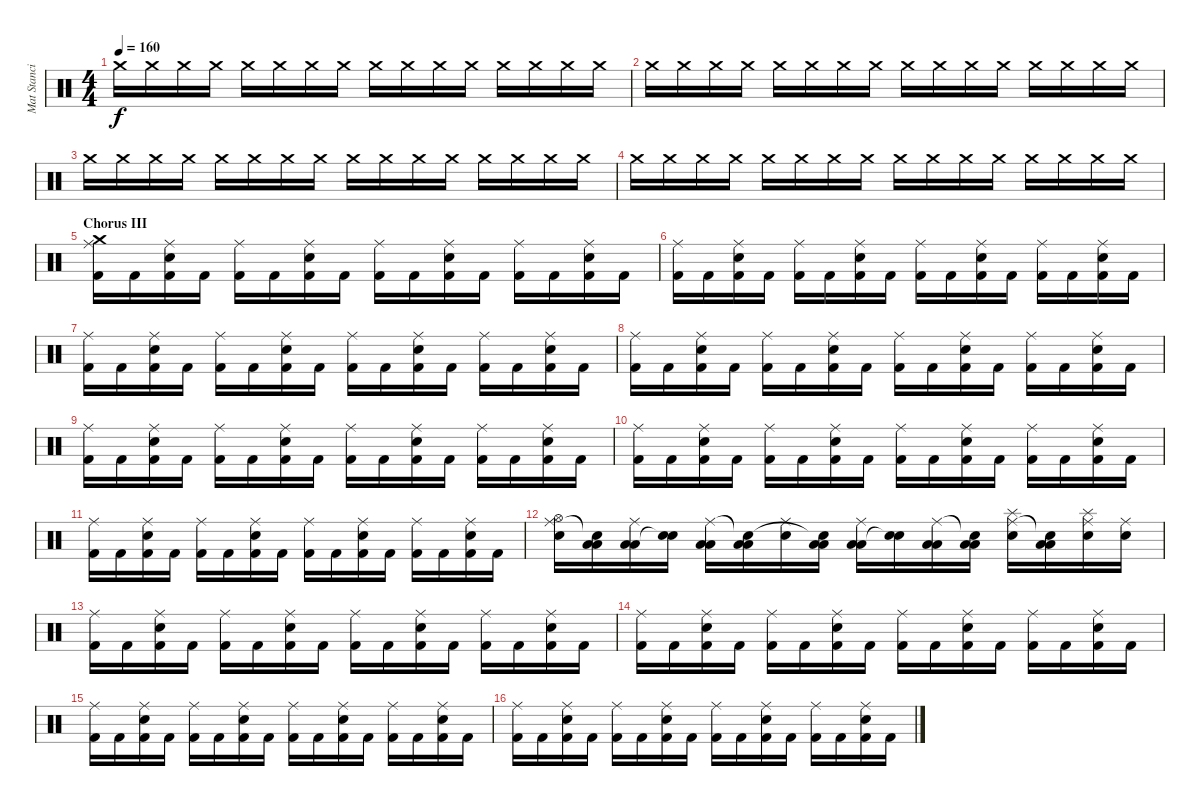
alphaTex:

\track ("Mat Stancioiu" "Mat Stanci") {instrument percussion}
\staff {score}
\articulation defaults
\ts (4 4)
\tempo 160
\clef neutral
\ks c "Crash medium (hit)".16{dy f} "Crash medium (hit)".16 "Crash medium (hit)".16 "Crash medium (hit)".16 "Crash medium (hit)".16 "Crash medium (hit)".16 "Crash medium (hit)".16 "Crash medium (hit)".16 "Crash medium (hit)".16 "Crash medium (hit)".16 "Crash medium (hit)".16 "Crash medium (hit)".16 "Crash medium (hit)".16 "Crash medium (hit)".16 "Crash medium (hit)".16 "Crash medium (hit)".16
|
"Crash medium (hit)".16{volume 0} "Crash medium (hit)".16 "Crash medium (hit)".16 "Crash medium (hit)".16 "Crash medium (hit)".16 "Crash medium (hit)".16 "Crash medium (hit)".16 "Crash medium (hit)".16 "Crash medium (hit)".16 "Crash medium (hit)".16 "Crash medium (hit)".16 "Crash medium (hit)".16 "Crash medium (hit)".16 "Crash medium (hit)".16 "Crash medium (hit)".16 "Crash medium (hit)".16 |
"Crash medium (hit)".16{volume 14} "Crash medium (hit)".16 "Crash medium (hit)".16 "Crash medium (hit)".16 "Crash medium (hit)".16 "Crash medium (hit)".16 "Crash medium (hit)".16 "Crash medium (hit)".16 "Crash medium (hit)".16 "Crash medium (hit)".16 "Crash medium (hit)".16 "Crash medium (hit)".16 "Crash medium (hit)".16 "Crash medium (hit)".16 "Crash medium (hit)".16 "Crash medium (hit)".16 |
"Crash medium (hit)".16 "Crash medium (hit)".16 "Crash medium (hit)".16 "Crash medium (hit)".16 "Crash medium (hit)".16 "Crash medium (hit)".16 "Crash medium (hit)".16 "Crash medium (hit)".16 "Crash medium (hit)".16 "Crash medium (hit)".16 "Crash medium (hit)".16 "Crash medium (hit)".16 "Crash medium (hit)".16 "Crash medium (hit)".16 "Crash medium (hit)".16 "Crash medium (hit)".16 |
\section ("" "Chorus III")
("Crash medium (hit)" "Kick (hit) 2" "Ride (middle)").16 "Kick (hit) 2".16 ("Electric Snare (hit)" "Kick (hit) 2" "Ride (middle)").16 "Kick (hit) 2".16 ("Kick (hit) 2" "Ride (middle)").16 "Kick (hit) 2".16 ("Electric Snare (hit)" "Kick (hit) 2" "Ride (middle)").16 "Kick (hit) 2".16 ("Kick (hit) 2" "Ride (middle)").16 "Kick (hit) 2".16 ("Electric Snare (hit)" "Kick (hit) 2" "Ride (middle)").16 "Kick (hit) 2".16 ("Kick (hit) 2" "Ride (middle)").16 "Kick (hit) 2".16 ("Electric Snare (hit)" "Kick (hit) 2" "Ride (middle)").16 "Kick (hit) 2".16 |
("Kick (hit) 2" "Ride (middle)").16 "Kick (hit) 2".16 ("Electric Snare (hit)" "Kick (hit) 2" "Ride (middle)").16 "Kick (hit) 2".16 ("Kick (hit) 2" "Ride (middle)").16 "Kick (hit) 2".16 ("Electric Snare (hit)" "Kick (hit) 2" "Ride (middle)").16 "Kick (hit) 2".16 ("Kick (hit) 2" "Ride (middle)").16 "Kick (hit) 2".16 ("Electric Snare (hit)" "Kick (hit) 2" "Ride (middle)").16 "Kick (hit) 2".16 ("Kick (hit) 2" "Ride (middle)").16 "Kick (hit) 2".16 ("Electric Snare (hit)" "Kick (hit) 2" "Ride (middle)").16 "Kick (hit) 2".16 |
("Kick (hit) 2" "Ride (middle)").16 "Kick (hit) 2".16 ("Electric Snare (hit)" "Kick (hit) 2" "Ride (middle)").16 "Kick (hit) 2".16 ("Kick (hit) 2" "Ride (middle)").16 "Kick (hit) 2".16 ("Electric Snare (hit)" "Kick (hit) 2" "Ride (middle)").16 "Kick (hit) 2".16 ("Kick (hit) 2" "Ride (middle)").16 "Kick (hit) 2".16 ("Electric Snare (hit)" "Kick (hit) 2" "Ride (middle)").16 "Kick (hit) 2".16 ("Kick (hit) 2" "Ride (middle)").16 "Kick (hit) 2".16 ("Electric Snare (hit)" "Kick (hit) 2" "Ride (middle)").16 "Kick (hit) 2".16 |
("Kick (hit) 2" "Ride (middle)").16 "Kick (hit) 2".16 ("Electric Snare (hit)" "Kick (hit) 2" "Ride (middle)").16 "Kick (hit) 2".16 ("Kick (hit) 2" "Ride (middle)").16 "Kick (hit) 2".16 ("Electric Snare (hit)" "Kick (hit) 2" "Ride (middle)").16 "Kick (hit) 2".16 ("Kick (hit) 2" "Ride (middle)").16 "Kick (hit) 2".16 ("Electric Snare (hit)" "Kick (hit) 2" "Ride (middle)").16 "Kick (hit) 2".16 ("Kick (hit) 2" "Ride (middle)").16 "Kick (hit) 2".16 ("Electric Snare (hit)" "Kick (hit) 2" "Ride (middle)").16 "Kick (hit) 2".16 |
("Kick (hit) 2" "Ride (middle)").16 "Kick (hit) 2".16 ("Electric Snare (hit)" "Kick (hit) 2" "Ride (middle)").16 "Kick (hit) 2".16 ("Kick (hit) 2" "Ride (middle)").16 "Kick (hit) 2".16 ("Electric Snare (hit)" "Kick (hit) 2" "Ride (middle)").16 "Kick (hit) 2".16 ("Kick (hit) 2" "Ride (middle)").16 "Kick (hit) 2".16 ("Electric Snare (hit)" "Kick (hit) 2" "Ride (middle)").16 "Kick (hit) 2".16 ("Kick (hit) 2" "Ride (middle)").16 "Kick (hit) 2".16 ("Electric Snare (hit)" "Kick (hit) 2" "Ride (middle)").16 "Kick (hit) 2".16 |
("Kick (hit) 2" "Ride (middle)").16 "Kick (hit) 2".16 ("Electric Snare (hit)" "Kick (hit) 2" "Ride (middle)").16 "Kick (hit) 2".16 ("Kick (hit) 2" "Ride (middle)").16 "Kick (hit) 2".16 ("Electric Snare (hit)" "Kick (hit) 2" "Ride (middle)").16 "Kick (hit) 2".16 ("Kick (hit) 2" "Ride (middle)").16 "Kick (hit) 2".16 ("Electric Snare (hit)" "Kick (hit) 2" "Ride (middle)").16 "Kick (hit) 2".16 ("Kick (hit) 2" "Ride (middle)").16 "Kick (hit) 2".16 ("Electric Snare (hit)" "Kick (hit) 2" "Ride (middle)").16 "Kick (hit) 2".16 |
("Kick (hit) 2" "Ride (middle)").16 "Kick (hit) 2".16 ("Electric Snare (hit)" "Kick (hit) 2" "Ride (middle)").16 "Kick (hit) 2".16 ("Kick (hit) 2" "Ride (middle)").16 "Kick (hit) 2".16 ("Electric Snare (hit)" "Kick (hit) 2" "Ride (middle)").16 "Kick (hit) 2".16 ("Kick (hit) 2" "Ride (middle)").16 "Kick (hit) 2".16 ("Electric Snare (hit)" "Kick (hit) 2" "Ride (middle)").16 "Kick (hit) 2".16 ("Kick (hit) 2" "Ride (middle)").16 "Kick (hit) 2".16 ("Electric Snare (hit)" "Kick (hit) 2" "Ride (middle)").16 "Kick (hit) 2".16 |
("Hi-Hat (open)" "Electric Snare (hit)" "Ride (middle)").16 ("Low Tom (hit)" "Low Tom (hit)" "Snare (hit)"{t}).16 ("Low Tom (hit)" "Low Tom (hit)" "Ride (middle)").16 ("Electric Snare (hit)" "Snare (hit) 2"{t}).16 ("Low Tom (hit)" "Low Tom (hit)" "Ride (middle)").16 ("Low Tom (hit)" "Low Tom (hit)" "Snare (hit)"{t}).16 ("Electric Snare (hit)" "Ride (middle)").16 ("Low Tom (hit)" "Low Tom (hit)" "Snare (hit)"{t}).16 ("Low Tom (hit)" "Low Tom (hit)" "Ride (middle)").16 ("Electric Snare (hit)" "Snare (hit)"{t}).16 ("Low Tom (hit)" "Low Tom (hit)" "Ride (middle)").16 ("Low Tom (hit)" "Low Tom (hit)" "Snare (hit)"{t}).16 ("Splash (hit)" "Electric Snare (hit)" "Ride (middle)").16 ("Low Tom (hit)" "Low Tom (hit)" "Snare (hit)"{t}).16 ("Splash (hit)" "Electric Snare (hit)" "Ride (middle)").16 ("Electric Snare (hit)" "Ride (middle)").16 |
("Kick (hit) 2" "Ride (middle)").16 "Kick (hit) 2".16 ("Electric Snare (hit)" "Kick (hit) 2" "Ride (middle)").16 "Kick (hit) 2".16 ("Kick (hit) 2" "Ride (middle)").16 "Kick (hit) 2".16 ("Electric Snare (hit)" "Kick (hit) 2" "Ride (middle)").16 "Kick (hit) 2".16 ("Kick (hit) 2" "Ride (middle)").16 "Kick (hit) 2".16 ("Electric Snare (hit)" "Kick (hit) 2" "Ride (middle)").16 "Kick (hit) 2".16 ("Kick (hit) 2" "Ride (middle)").16 "Kick (hit) 2".16 ("Electric Snare (hit)" "Kick (hit) 2" "Ride (middle)").16 "Kick (hit) 2".16 |
("Kick (hit) 2" "Ride (middle)").16 "Kick (hit) 2".16 ("Electric Snare (hit)" "Kick (hit) 2" "Ride (middle)").16 "Kick (hit) 2".16 ("Kick (hit) 2" "Ride (middle)").16 "Kick (hit) 2".16 ("Electric Snare (hit)" "Kick (hit) 2" "Ride (middle)").16 "Kick (hit) 2".16 ("Kick (hit) 2" "Ride (middle)").16 "Kick (hit) 2".16 ("Electric Snare (hit)" "Kick (hit) 2" "Ride (middle)").16 "Kick (hit) 2".16 ("Kick (hit) 2" "Ride (middle)").16 "Kick (hit) 2".16 ("Electric Snare (hit)" "Kick (hit) 2" "Ride (middle)").16 "Kick (hit) 2".16 |
("Kick (hit) 2" "Ride (middle)").16 "Kick (hit) 2".16 ("Electric Snare (hit)" "Kick (hit) 2" "Ride (middle)").16 "Kick (hit) 2".16 ("Kick (hit) 2" "Ride (middle)").16 "Kick (hit) 2".16 ("Electric Snare (hit)" "Kick (hit) 2" "Ride (middle)").16 "Kick (hit) 2".16 ("Kick (hit) 2" "Ride (middle)").16 "Kick (hit) 2".16 ("Electric Snare (hit)" "Kick (hit) 2" "Ride (middle)").16 "Kick (hit) 2".16 ("Kick (hit) 2" "Ride (middle)").16 "Kick (hit) 2".16 ("Electric Snare (hit)" "Kick (hit) 2" "Ride (middle)").16 "Kick (hit) 2".16 |
("Kick (hit) 2" "Ride (middle)").16 "Kick (hit) 2".16 ("Electric Snare (hit)" "Kick (hit) 2" "Ride (middle)").16 "Kick (hit) 2".16 ("Kick (hit) 2" "Ride (middle)").16 "Kick (hit) 2".16 ("Electric Snare (hit)" "Kick (hit) 2" "Ride (middle)").16 "Kick (hit) 2".16 ("Kick (hit) 2" "Ride (middle)").16 "Kick (hit) 2".16 ("Electric Snare (hit)" "Kick (hit) 2" "Ride (middle)").16 "Kick (hit) 2".16 ("Kick (hit) 2" "Ride (middle)").16 "Kick (hit) 2".16 ("Electric Snare (hit)" "Kick (hit) 2" "Ride (middle)").16 "Kick (hit) 2".16
